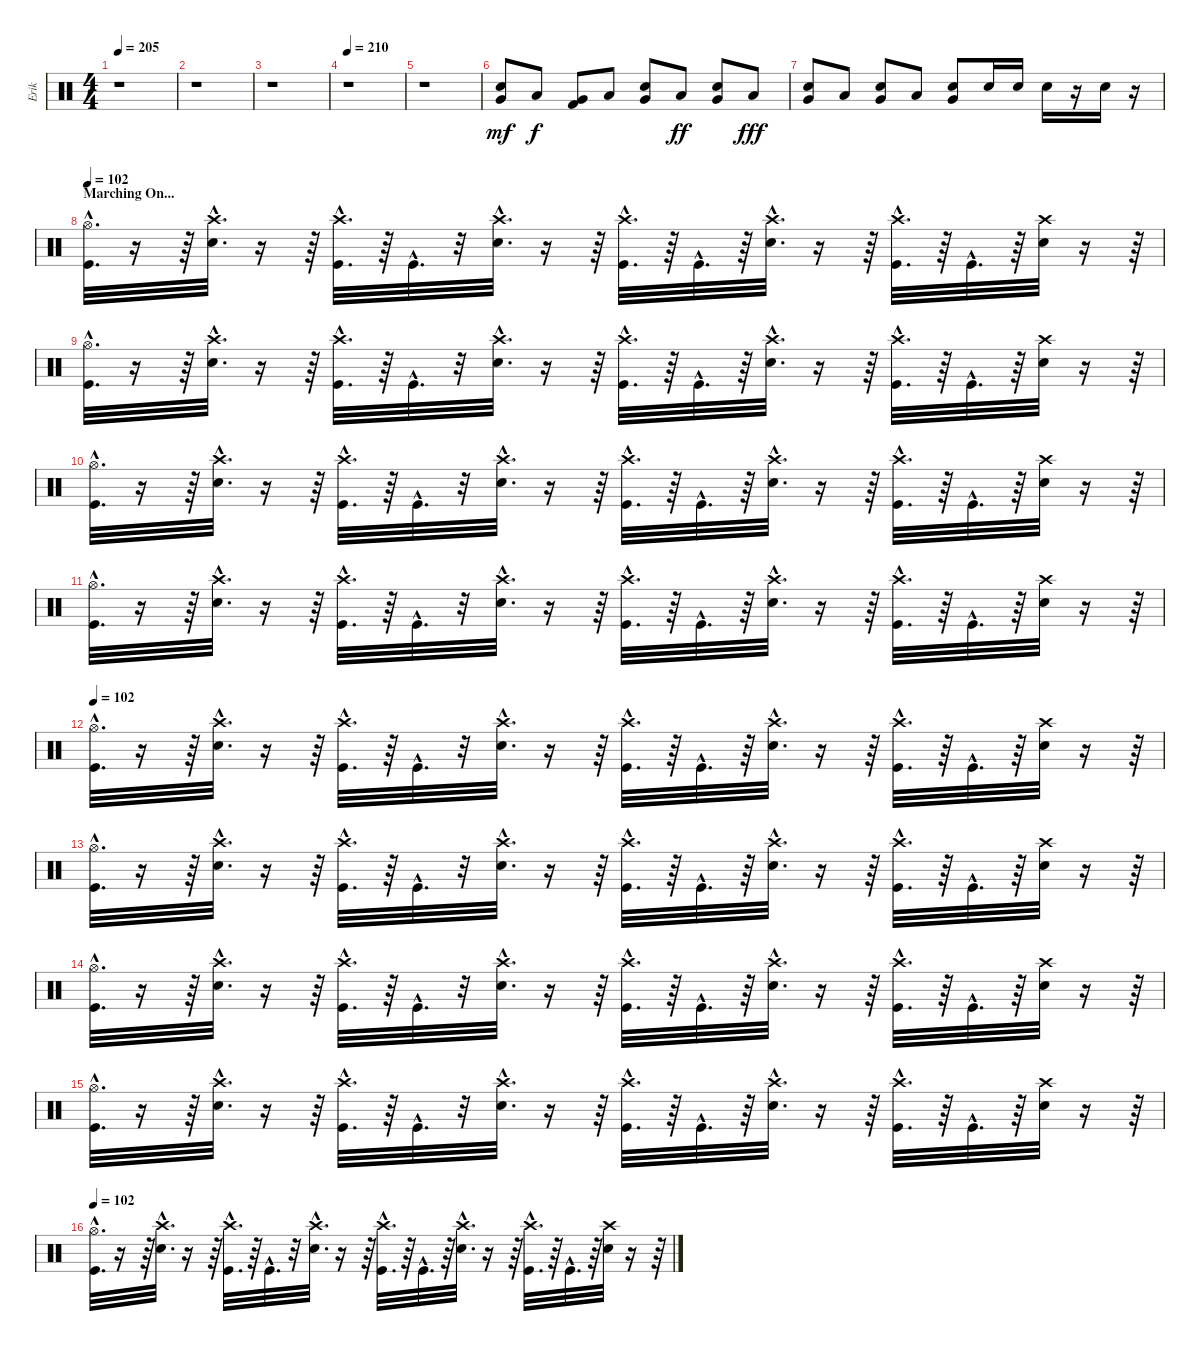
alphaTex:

\track ("Erik" "Erik") {instrument percussion}
\staff {score}
\articulation defaults
\ts (4 4)
\tempo 205
\clef neutral
\ks c
r.1{dy fff} |
r.1 |
r.1 |
\tempo 210
r.1 |
r.1 |
("Snare (hit) 2" "Very Low Tom (hit)").8{dy mf} "Low Floor Tom (hit)".8{dy f} ("Kick (hit) 2" "Very Low Tom (hit)").8 "Low Floor Tom (hit)".8 ("Snare (hit) 2" "Very Low Tom (hit)").8 "Low Floor Tom (hit)".8{dy ff} ("Snare (hit) 2" "Very Low Tom (hit)").8 "Low Floor Tom (hit)".8{dy fff} |
("Snare (hit) 2" "Very Low Tom (hit)").8 "Low Floor Tom (hit)".8 ("Snare (hit) 2" "Very Low Tom (hit)").8 "Low Floor Tom (hit)".8 ("Snare (hit) 2" "Very Low Tom (hit)").8 "Snare (hit) 2".16 "Snare (hit) 2".16 "Snare (hit) 2".16 r.16 "Snare (hit) 2".16 r.16 |
\section ("" "Marching On...")
\tempo 102
("Hi-Hat (open)"{hac} "Kick (hit)"{hac}).32{d} r.16 r.64 ("Crash high (hit)"{hac} "Electric Snare (hit)"{hac}).32{d} r.16 r.64 ("Kick (hit)"{hac} "Crash high (hit)"{hac}).32{d} r.64 "Kick (hit)"{hac}.32{d} r.32 ("Crash high (hit)"{hac} "Electric Snare (hit)"{hac}).32{d} r.16 r.64 ("Crash high (hit)"{hac} "Kick (hit)"{hac}).32{d} r.64 "Kick (hit)"{hac}.32{d} r.64 ("Crash high (hit)"{hac} "Electric Snare (hit)"{hac}).32{d} r.16 r.64 ("Kick (hit)"{hac} "Crash high (hit)"{hac}).32{d} r.64 "Kick (hit)"{hac}.32{d} r.64 ("Electric Snare (hit)" "Crash high (hit)").32 r.16 r.64 |
("Hi-Hat (open)"{hac} "Kick (hit)"{hac}).32{d} r.16 r.64 ("Crash high (hit)"{hac} "Electric Snare (hit)"{hac}).32{d} r.16 r.64 ("Kick (hit)"{hac} "Crash high (hit)"{hac}).32{d} r.64 "Kick (hit)"{hac}.32{d} r.32 ("Crash high (hit)"{hac} "Electric Snare (hit)"{hac}).32{d} r.16 r.64 ("Crash high (hit)"{hac} "Kick (hit)"{hac}).32{d} r.64 "Kick (hit)"{hac}.32{d} r.64 ("Crash high (hit)"{hac} "Electric Snare (hit)"{hac}).32{d} r.16 r.64 ("Kick (hit)"{hac} "Crash high (hit)"{hac}).32{d} r.64 "Kick (hit)"{hac}.32{d} r.64 ("Electric Snare (hit)" "Crash high (hit)").32 r.16 r.64 |
("Hi-Hat (open)"{hac} "Kick (hit)"{hac}).32{d} r.16 r.64 ("Crash high (hit)"{hac} "Electric Snare (hit)"{hac}).32{d} r.16 r.64 ("Kick (hit)"{hac} "Crash high (hit)"{hac}).32{d} r.64 "Kick (hit)"{hac}.32{d} r.32 ("Crash high (hit)"{hac} "Electric Snare (hit)"{hac}).32{d} r.16 r.64 ("Crash high (hit)"{hac} "Kick (hit)"{hac}).32{d} r.64 "Kick (hit)"{hac}.32{d} r.64 ("Crash high (hit)"{hac} "Electric Snare (hit)"{hac}).32{d} r.16 r.64 ("Kick (hit)"{hac} "Crash high (hit)"{hac}).32{d} r.64 "Kick (hit)"{hac}.32{d} r.64 ("Electric Snare (hit)" "Crash high (hit)").32 r.16 r.64 |
("Hi-Hat (open)"{hac} "Kick (hit)"{hac}).32{d} r.16 r.64 ("Crash high (hit)"{hac} "Electric Snare (hit)"{hac}).32{d} r.16 r.64 ("Kick (hit)"{hac} "Crash high (hit)"{hac}).32{d} r.64 "Kick (hit)"{hac}.32{d} r.32 ("Crash high (hit)"{hac} "Electric Snare (hit)"{hac}).32{d} r.16 r.64 ("Crash high (hit)"{hac} "Kick (hit)"{hac}).32{d} r.64 "Kick (hit)"{hac}.32{d} r.64 ("Crash high (hit)"{hac} "Electric Snare (hit)"{hac}).32{d} r.16 r.64 ("Kick (hit)"{hac} "Crash high (hit)"{hac}).32{d} r.64 "Kick (hit)"{hac}.32{d} r.64 ("Electric Snare (hit)" "Crash high (hit)").32 r.16 r.64 |
\tempo 102
("Hi-Hat (open)"{hac} "Kick (hit)"{hac}).32{d} r.16 r.64 ("Crash high (hit)"{hac} "Electric Snare (hit)"{hac}).32{d} r.16 r.64 ("Kick (hit)"{hac} "Crash high (hit)"{hac}).32{d} r.64 "Kick (hit)"{hac}.32{d} r.32 ("Crash high (hit)"{hac} "Electric Snare (hit)"{hac}).32{d} r.16 r.64 ("Crash high (hit)"{hac} "Kick (hit)"{hac}).32{d} r.64 "Kick (hit)"{hac}.32{d} r.64 ("Crash high (hit)"{hac} "Electric Snare (hit)"{hac}).32{d} r.16 r.64 ("Kick (hit)"{hac} "Crash high (hit)"{hac}).32{d} r.64 "Kick (hit)"{hac}.32{d} r.64 ("Electric Snare (hit)" "Crash high (hit)").32 r.16 r.64 |
("Hi-Hat (open)"{hac} "Kick (hit)"{hac}).32{d} r.16 r.64 ("Crash high (hit)"{hac} "Electric Snare (hit)"{hac}).32{d} r.16 r.64 ("Kick (hit)"{hac} "Crash high (hit)"{hac}).32{d} r.64 "Kick (hit)"{hac}.32{d} r.32 ("Crash high (hit)"{hac} "Electric Snare (hit)"{hac}).32{d} r.16 r.64 ("Crash high (hit)"{hac} "Kick (hit)"{hac}).32{d} r.64 "Kick (hit)"{hac}.32{d} r.64 ("Crash high (hit)"{hac} "Electric Snare (hit)"{hac}).32{d} r.16 r.64 ("Kick (hit)"{hac} "Crash high (hit)"{hac}).32{d} r.64 "Kick (hit)"{hac}.32{d} r.64 ("Electric Snare (hit)" "Crash high (hit)").32 r.16 r.64 |
("Hi-Hat (open)"{hac} "Kick (hit)"{hac}).32{d} r.16 r.64 ("Crash high (hit)"{hac} "Electric Snare (hit)"{hac}).32{d} r.16 r.64 ("Kick (hit)"{hac} "Crash high (hit)"{hac}).32{d} r.64 "Kick (hit)"{hac}.32{d} r.32 ("Crash high (hit)"{hac} "Electric Snare (hit)"{hac}).32{d} r.16 r.64 ("Crash high (hit)"{hac} "Kick (hit)"{hac}).32{d} r.64 "Kick (hit)"{hac}.32{d} r.64 ("Crash high (hit)"{hac} "Electric Snare (hit)"{hac}).32{d} r.16 r.64 ("Kick (hit)"{hac} "Crash high (hit)"{hac}).32{d} r.64 "Kick (hit)"{hac}.32{d} r.64 ("Electric Snare (hit)" "Crash high (hit)").32 r.16 r.64 |
("Hi-Hat (open)"{hac} "Kick (hit)"{hac}).32{d} r.16 r.64 ("Crash high (hit)"{hac} "Electric Snare (hit)"{hac}).32{d} r.16 r.64 ("Kick (hit)"{hac} "Crash high (hit)"{hac}).32{d} r.64 "Kick (hit)"{hac}.32{d} r.32 ("Crash high (hit)"{hac} "Electric Snare (hit)"{hac}).32{d} r.16 r.64 ("Crash high (hit)"{hac} "Kick (hit)"{hac}).32{d} r.64 "Kick (hit)"{hac}.32{d} r.64 ("Crash high (hit)"{hac} "Electric Snare (hit)"{hac}).32{d} r.16 r.64 ("Kick (hit)"{hac} "Crash high (hit)"{hac}).32{d} r.64 "Kick (hit)"{hac}.32{d} r.64 ("Electric Snare (hit)" "Crash high (hit)").32 r.16 r.64 |
\tempo 102
("Hi-Hat (open)"{hac} "Kick (hit)"{hac}).32{d} r.16 r.64 ("Crash high (hit)"{hac} "Electric Snare (hit)"{hac}).32{d} r.16 r.64 ("Kick (hit)"{hac} "Crash high (hit)"{hac}).32{d} r.64 "Kick (hit)"{hac}.32{d} r.32 ("Crash high (hit)"{hac} "Electric Snare (hit)"{hac}).32{d} r.16 r.64 ("Crash high (hit)"{hac} "Kick (hit)"{hac}).32{d} r.64 "Kick (hit)"{hac}.32{d} r.64 ("Crash high (hit)"{hac} "Electric Snare (hit)"{hac}).32{d} r.16 r.64 ("Kick (hit)"{hac} "Crash high (hit)"{hac}).32{d} r.64 "Kick (hit)"{hac}.32{d} r.64 ("Electric Snare (hit)" "Crash high (hit)").32 r.16 r.64
